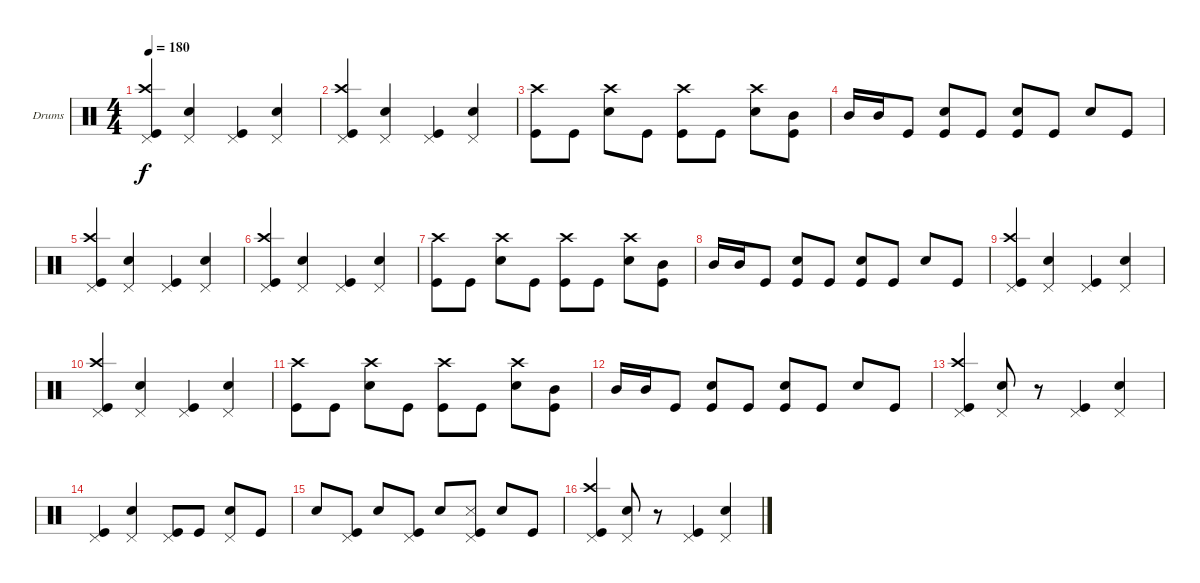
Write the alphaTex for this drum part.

\defaultSystemsLayout 4
\bracketExtendMode groupsimilarinstruments
\firstSystemTrackNameOrientation horizontal
\otherSystemsTrackNameOrientation horizontal
\track ("Drumkit" "Drums") {multiBarRest instrument percussion}
\staff {score}
\articulation defaults
\ts (4 4)
\tempo 180
\clef neutral
\scale
0.333333
\ks c
("Pedal Hi-Hat (hit)" "Crash high (hit)" "Kick (hit)").4{dy f} ("Pedal Hi-Hat (hit)" "Snare (hit) 2").4 ("Pedal Hi-Hat (hit)" "Kick (hit)").4 ("Pedal Hi-Hat (hit)" "Snare (hit) 2").4 |
\scale
0.333333 ("Pedal Hi-Hat (hit)" "Crash high (hit)" "Kick (hit)").4 ("Pedal Hi-Hat (hit)" "Snare (hit) 2").4 ("Pedal Hi-Hat (hit)" "Kick (hit)").4 ("Pedal Hi-Hat (hit)" "Snare (hit) 2").4 |
\scale
0.333333 ("Crash high (hit)" "Kick (hit)").8 "Kick (hit)".8 ("Crash high (hit)" "Snare (hit) 2").8 "Kick (hit)".8 ("Crash high (hit)" "Kick (hit)").8 "Kick (hit)".8 ("Crash high (hit)" "Snare (hit) 2").8 ("Mid Tom (hit)" "Kick (hit)").8 |
\scale
0.333333 "Mid Tom (hit)".16 "Mid Tom (hit)".16 "Kick (hit)".8 ("Snare (hit) 2" "Kick (hit)").8 "Kick (hit)".8 ("Snare (hit) 2" "Kick (hit)").8 "Kick (hit)".8 "Snare (hit) 2".8 "Kick (hit)".8 |
\scale
0.333333 ("Pedal Hi-Hat (hit)" "Crash high (hit)" "Kick (hit)").4 ("Pedal Hi-Hat (hit)" "Snare (hit) 2").4 ("Pedal Hi-Hat (hit)" "Kick (hit)").4 ("Pedal Hi-Hat (hit)" "Snare (hit) 2").4 |
\scale
0.333333 ("Pedal Hi-Hat (hit)" "Crash high (hit)" "Kick (hit)").4 ("Pedal Hi-Hat (hit)" "Snare (hit) 2").4 ("Pedal Hi-Hat (hit)" "Kick (hit)").4 ("Pedal Hi-Hat (hit)" "Snare (hit) 2").4 |
\scale
0.333333 ("Crash high (hit)" "Kick (hit)").8 "Kick (hit)".8 ("Crash high (hit)" "Snare (hit) 2").8 "Kick (hit)".8 ("Crash high (hit)" "Kick (hit)").8 "Kick (hit)".8 ("Crash high (hit)" "Snare (hit) 2").8 ("Mid Tom (hit)" "Kick (hit)").8 |
\scale
0.333333 "Mid Tom (hit)".16 "Mid Tom (hit)".16 "Kick (hit)".8 ("Snare (hit) 2" "Kick (hit)").8 "Kick (hit)".8 ("Snare (hit) 2" "Kick (hit)").8 "Kick (hit)".8 "Snare (hit) 2".8 "Kick (hit)".8 |
\scale
0.333333 ("Pedal Hi-Hat (hit)" "Crash high (hit)" "Kick (hit)").4 ("Pedal Hi-Hat (hit)" "Snare (hit) 2").4 ("Pedal Hi-Hat (hit)" "Kick (hit)").4 ("Pedal Hi-Hat (hit)" "Snare (hit) 2").4 |
\scale
0.333333 ("Pedal Hi-Hat (hit)" "Crash high (hit)" "Kick (hit)").4 ("Pedal Hi-Hat (hit)" "Snare (hit) 2").4 ("Pedal Hi-Hat (hit)" "Kick (hit)").4 ("Pedal Hi-Hat (hit)" "Snare (hit) 2").4 |
\scale
0.333333 ("Crash high (hit)" "Kick (hit)").8 "Kick (hit)".8 ("Crash high (hit)" "Snare (hit) 2").8 "Kick (hit)".8 ("Crash high (hit)" "Kick (hit)").8 "Kick (hit)".8 ("Crash high (hit)" "Snare (hit) 2").8 ("Mid Tom (hit)" "Kick (hit)").8 |
\scale
0.333333 "Mid Tom (hit)".16 "Mid Tom (hit)".16 "Kick (hit)".8 ("Snare (hit) 2" "Kick (hit)").8 "Kick (hit)".8 ("Snare (hit) 2" "Kick (hit)").8 "Kick (hit)".8 "Snare (hit) 2".8 "Kick (hit)".8 |
\scale
0.333333 ("Pedal Hi-Hat (hit)" "Crash high (hit)" "Kick (hit)").4 ("Pedal Hi-Hat (hit)" "Snare (hit) 2").8 r.8 ("Pedal Hi-Hat (hit)" "Kick (hit)").4 ("Pedal Hi-Hat (hit)" "Snare (hit) 2").4 |
\scale
0.333333 ("Pedal Hi-Hat (hit)" "Kick (hit)").4 ("Pedal Hi-Hat (hit)" "Snare (hit) 2").4 ("Pedal Hi-Hat (hit)" "Kick (hit)").8 "Kick (hit)".8 ("Pedal Hi-Hat (hit)" "Snare (hit) 2").8 "Kick (hit)".8 |
\scale
0.333333 "Snare (hit) 2".8 ("Pedal Hi-Hat (hit)" "Kick (hit)").8 "Snare (hit) 2".8 ("Pedal Hi-Hat (hit)" "Kick (hit)").8 "Snare (hit) 2".8 ("Pedal Hi-Hat (hit)" "Snare (side stick) 3" "Kick (hit)").8 "Snare (hit) 2".8 "Kick (hit)".8 |
\scale
0.333333 ("Pedal Hi-Hat (hit)" "Crash high (hit)" "Kick (hit)").4 ("Pedal Hi-Hat (hit)" "Snare (hit) 2").8 r.8 ("Pedal Hi-Hat (hit)" "Kick (hit)").4 ("Pedal Hi-Hat (hit)" "Snare (hit) 2").4
